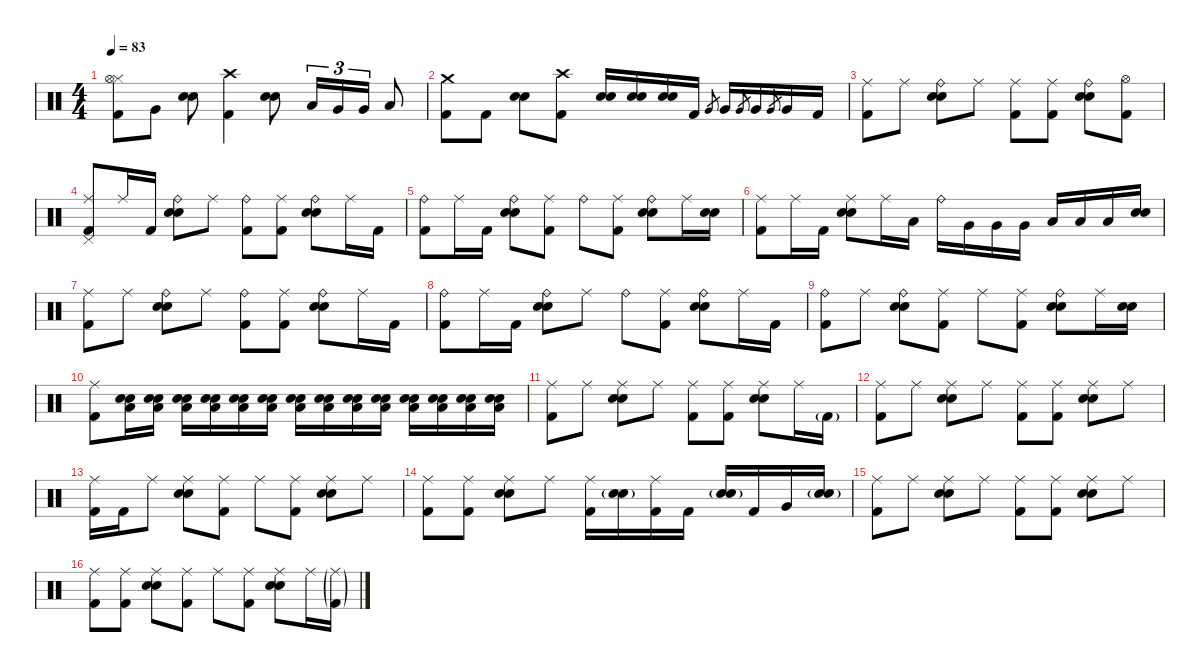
\defaultSystemsLayout 4
\hideDynamics
\bracketExtendMode nobrackets
\singleTrackTrackNamePolicy hidden
\multiTrackTrackNamePolicy hidden
\firstSystemTrackNameMode fullname
\firstSystemTrackNameOrientation horizontal
\otherSystemsTrackNameOrientation horizontal
\track ("Batterie" "drm.") {instrument percussion}
\staff {score}
\articulation defaults
\ts (4 4)
\tempo 83
\clef neutral
\ks c
("Hi-Hat (closed)" "Hi-Hat (open)" "Kick (hit) 2").8{dy f beam Down} "Very Low Tom (hit)".8{beam Down} ("Snare (hit) 2" "Snare (hit) 2").8{dy mp beam Down} ("Crash high (hit)" "Kick (hit) 2").4{beam Down} ("Snare (hit) 2" "Snare (hit) 2").8{beam Down} "Low Tom (hit)".16{tu (3 2) dy f beam Up} "Very Low Tom (hit)".16{tu (3 2) beam Up} "Very Low Tom (hit)".16{tu (3 2) beam Up} "Low Floor Tom (hit)".8{beam Up} |
("Crash medium (hit)" "Kick (hit) 2").8{beam Down} "Kick (hit) 2".8{dy mf beam Down} ("Snare (hit) 2" "Snare (hit) 2").8{dy mp beam Down} ("Crash high (hit)" "Kick (hit) 2").8{beam Down} ("Snare (hit) 2" "Snare (hit) 2").16{beam Up} ("Snare (hit) 2" "Snare (hit) 2").16{beam Up} ("Snare (hit) 2" "Snare (hit) 2").16{beam Up} "Kick (hit) 2".16{dy mf beam Up} "Very Low Tom (hit)".8{gr beam Up} "Very Low Tom (hit)".16{dy f beam Up} "Very Low Tom (hit)".8{gr dy mf beam Up} "Very Low Tom (hit)".16{dy f beam Up} "Very Low Tom (hit)".8{gr dy mf beam Up} "Very Low Tom (hit)".16{dy f beam Up} "Kick (hit) 2".16{dy mf beam Up} |
("Ride (middle)" "Kick (hit) 2").8{dy f beam Down} "Ride (middle)".8{beam Down} ("Ride (bell)" "Snare (hit) 2" "Snare (hit) 2").8{beam Down} "Ride (middle)".8{beam Down} ("Ride (middle)" "Kick (hit) 2").8{beam Down} ("Ride (middle)" "Kick (hit) 2").8{beam Down} ("Ride (bell)" "Snare (hit) 2" "Snare (hit) 2").8{beam Down} ("Hi-Hat (open)" "Kick (hit) 2").8{dy mp beam Down} |
("Ride (middle)" "Pedal Hi-Hat (hit)" "Kick (hit) 2").8{dy f beam Up} "Ride (middle)".16{beam Up} "Kick (hit) 2".16{dy mf beam Up} ("Ride (bell)" "Snare (hit) 2" "Snare (hit) 2").8{dy f beam Down} "Ride (middle)".8{beam Down} ("Ride (bell)" "Kick (hit) 2").8{beam Down} ("Ride (middle)" "Kick (hit) 2").8{beam Down} ("Ride (bell)" "Snare (hit) 2" "Snare (hit) 2").8{beam Down} "Ride (middle)".16{beam Down} "Kick (hit) 2".16{dy mf beam Down} |
("Ride (bell)" "Kick (hit) 2").8{dy f beam Down} "Ride (middle)".16{beam Down} "Kick (hit) 2".16{dy mf beam Down} ("Ride (bell)" "Snare (hit) 2" "Snare (hit) 2").8{dy f beam Down} ("Ride (middle)" "Kick (hit) 2").8{beam Down} "Ride (bell)".8{beam Down} ("Ride (middle)" "Kick (hit) 2").8{beam Down} ("Ride (bell)" "Snare (hit) 2" "Snare (hit) 2").8{beam Down} "Ride (middle)".16{beam Down} ("Snare (hit) 2" "Snare (hit) 2").16{dy mp beam Down} |
("Ride (middle)" "Kick (hit) 2").8{dy f beam Down} "Ride (middle)".16{beam Down} "Kick (hit) 2".16{dy mf beam Down} ("Ride (middle)" "Snare (hit) 2" "Snare (hit) 2").8{dy f beam Down} "Ride (middle)".16{beam Down} "Low Tom (hit)".16{dy mp beam Down} "Ride (bell)".16{dy f beam Down} "Very Low Tom (hit)".16{beam Down} "Very Low Tom (hit)".16{beam Down} "Very Low Tom (hit)".16{beam Down} "Low Floor Tom (hit)".16{beam Up} "Low Floor Tom (hit)".16{beam Up} "Low Floor Tom (hit)".16{beam Up} ("Snare (hit) 2" "Snare (hit) 2").16{dy mp beam Up} |
("Ride (middle)" "Kick (hit) 2").8{dy f beam Down} "Ride (middle)".8{beam Down} ("Ride (bell)" "Snare (hit) 2" "Snare (hit) 2").8{beam Down} "Ride (middle)".8{beam Down} ("Ride (bell)" "Kick (hit) 2").8{beam Down} ("Ride (middle)" "Kick (hit) 2").8{beam Down} ("Ride (bell)" "Snare (hit) 2" "Snare (hit) 2").8{beam Down} "Ride (middle)".16{beam Down} "Kick (hit) 2".16{dy mf beam Down} |
("Ride (bell)" "Kick (hit) 2").8{dy f beam Down} "Ride (middle)".16{beam Down} "Kick (hit) 2".16{dy mf beam Down} ("Ride (bell)" "Snare (hit) 2" "Snare (hit) 2").8{dy f beam Down} "Ride (middle)".8{beam Down} "Ride (bell)".8{beam Down} ("Ride (middle)" "Kick (hit) 2").8{beam Down} ("Ride (bell)" "Snare (hit) 2" "Snare (hit) 2").8{beam Down} "Ride (middle)".16{beam Down} "Kick (hit) 2".16{dy mf beam Down} |
("Ride (bell)" "Kick (hit) 2").8{dy f beam Down} "Ride (middle)".8{beam Down} ("Ride (bell)" "Snare (hit) 2" "Snare (hit) 2").8{beam Down} ("Ride (middle)" "Kick (hit) 2").8{beam Down} "Ride (middle)".8{beam Down} ("Ride (middle)" "Kick (hit) 2").8{beam Down} ("Ride (bell)" "Snare (hit) 2" "Snare (hit) 2").8{beam Down} "Ride (middle)".16{beam Down} ("Snare (hit) 2" "Snare (hit) 2").16{dy mf beam Down} |
("Ride (middle)" "Kick (hit) 2").8{dy f beam Down} ("Snare (hit) 2" "Snare (hit) 2" "Low Floor Tom (hit)").16{dy pp beam Down} ("Snare (hit) 2" "Snare (hit) 2" "Low Floor Tom (hit)").16{beam Down} ("Snare (hit) 2" "Snare (hit) 2" "Low Floor Tom (hit)").16{dy p beam Down} ("Snare (hit) 2" "Snare (hit) 2" "Low Floor Tom (hit)").16{beam Down} ("Snare (hit) 2" "Snare (hit) 2" "Low Floor Tom (hit)").16{beam Down} ("Snare (hit) 2" "Snare (hit) 2" "Low Floor Tom (hit)").16{dy mp beam Down} ("Snare (hit) 2" "Snare (hit) 2" "Low Floor Tom (hit)").16{beam Down} ("Snare (hit) 2" "Snare (hit) 2" "Low Floor Tom (hit)").16{beam Down} ("Snare (hit) 2" "Snare (hit) 2" "Low Floor Tom (hit)").16{dy mf beam Down} ("Snare (hit) 2" "Snare (hit) 2" "Low Floor Tom (hit)").16{beam Down} ("Snare (hit) 2" "Snare (hit) 2" "Low Floor Tom (hit)").16{beam Down} ("Snare (hit) 2" "Snare (hit) 2" "Low Floor Tom (hit)").16{dy f beam Down} ("Snare (hit) 2" "Snare (hit) 2" "Low Floor Tom (hit)").16{beam Down} ("Snare (hit) 2" "Snare (hit) 2" "Low Floor Tom (hit)").16{dy ff beam Down} |
("Ride (middle)" "Kick (hit) 2").8{dy f beam Down} "Ride (middle)".8{beam Down} ("Ride (middle)" "Snare (hit) 2" "Snare (hit) 2").8{beam Down} "Ride (middle)".8{beam Down} ("Ride (middle)" "Kick (hit) 2").8{beam Down} ("Ride (middle)" "Kick (hit) 2").8{beam Down} ("Ride (middle)" "Snare (hit) 2" "Snare (hit) 2").8{beam Down} "Ride (middle)".16{beam Down} "Kick (hit) 2"{g}.16{dy mf beam Down} |
("Ride (middle)" "Kick (hit) 2").8{dy f beam Down} "Ride (middle)".8{beam Down} ("Ride (middle)" "Snare (hit) 2" "Snare (hit) 2").8{beam Down} "Ride (middle)".8{beam Down} ("Ride (middle)" "Kick (hit) 2").8{beam Down} ("Ride (middle)" "Kick (hit) 2").8{beam Down} ("Ride (middle)" "Snare (hit) 2" "Snare (hit) 2").8{beam Down} "Ride (middle)".8{beam Down} |
("Ride (middle)" "Kick (hit) 2").16{beam Down} "Kick (hit) 2".16{dy mf beam Down} "Ride (middle)".8{dy f beam Down} ("Ride (middle)" "Snare (hit) 2" "Snare (hit) 2").8{beam Down} ("Ride (middle)" "Kick (hit) 2").8{beam Down} "Ride (middle)".8{beam Down} ("Ride (middle)" "Kick (hit) 2").8{beam Down} ("Ride (middle)" "Snare (hit) 2" "Snare (hit) 2").8{beam Down} "Ride (middle)".8{beam Down} |
("Ride (middle)" "Kick (hit) 2").8{beam Down} ("Ride (middle)" "Kick (hit) 2").8{beam Down} ("Ride (middle)" "Snare (hit) 2" "Snare (hit) 2").8{beam Down} "Ride (middle)".8{beam Down} ("Ride (middle)" "Kick (hit) 2").16{beam Down} ("Snare (hit) 2"{g} "Snare (hit) 2"{g}).16{dy mp beam Down} ("Ride (middle)" "Kick (hit) 2").16{dy f beam Down} "Kick (hit) 2".16{dy mf beam Down} ("Snare (hit) 2"{g} "Snare (hit) 2"{g}).16{dy f beam Up} "Kick (hit) 2".16{dy mf beam Up} "Very Low Tom (hit)".16{dy f beam Up} ("Snare (hit) 2"{g} "Snare (hit) 2"{g}).16{beam Up} |
("Ride (middle)" "Kick (hit) 2").8{beam Down} "Ride (middle)".8{beam Down} ("Ride (middle)" "Snare (hit) 2" "Snare (hit) 2").8{beam Down} "Ride (middle)".8{beam Down} ("Ride (middle)" "Kick (hit) 2").8{beam Down} ("Ride (middle)" "Kick (hit) 2").8{beam Down} ("Ride (middle)" "Snare (hit) 2" "Snare (hit) 2").8{beam Down} "Ride (middle)".8{beam Down} |
("Ride (middle)" "Kick (hit) 2").8{beam Down} ("Ride (middle)" "Kick (hit) 2").8{beam Down} ("Ride (middle)" "Snare (hit) 2" "Snare (hit) 2").8{beam Down} ("Ride (middle)" "Kick (hit) 2").8{beam Down} "Ride (middle)".8{beam Down} ("Ride (middle)" "Kick (hit) 2").8{beam Down} ("Ride (middle)" "Snare (hit) 2" "Snare (hit) 2").8{beam Down} "Ride (middle)".16{beam Down} ("Ride (middle)"{g} "Kick (hit) 2"{g}).16{dy mf beam Down}
